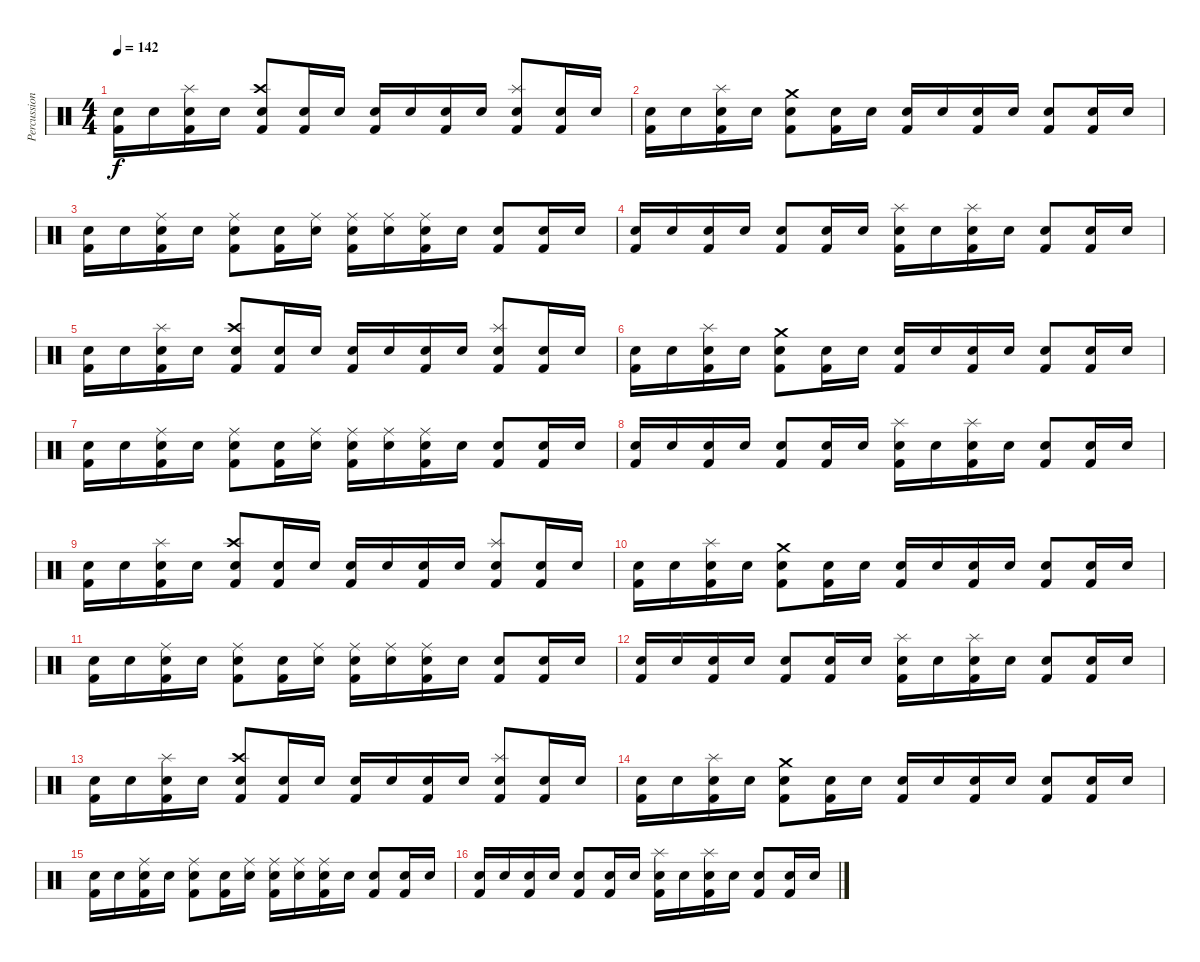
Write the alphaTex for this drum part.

\track ("Percussions" "Percussion") {instrument percussion}
\staff {score}
\articulation defaults
\ts (4 4)
\tempo 142
\clef neutral
\ks c
("Electric Snare (hit)" "Kick (hit) 2").16{dy f} "Electric Snare (hit)".16 ("Splash (hit)" "Electric Snare (hit)" "Kick (hit) 2").16 "Electric Snare (hit)".16 ("Crash high (hit)" "Snare (hit) 2" "Kick (hit) 2").8 ("Electric Snare (hit)" "Kick (hit) 2").16 "Electric Snare (hit)".16 ("Electric Snare (hit)" "Kick (hit) 2").16 "Electric Snare (hit)".16 ("Electric Snare (hit)" "Kick (hit) 2").16 "Electric Snare (hit)".16 ("Splash (hit)" "Snare (hit) 2" "Kick (hit) 2").8 ("Electric Snare (hit)" "Kick (hit) 2").16 "Electric Snare (hit)".16 |
("Electric Snare (hit)" "Kick (hit) 2").16 "Electric Snare (hit)".16 ("Splash (hit)" "Electric Snare (hit)" "Kick (hit) 2").16 "Electric Snare (hit)".16 ("Crash medium (hit)" "Snare (hit) 2" "Kick (hit) 2").8 ("Electric Snare (hit)" "Kick (hit) 2").16 "Electric Snare (hit)".16 ("Electric Snare (hit)" "Kick (hit) 2").16 "Electric Snare (hit)".16 ("Electric Snare (hit)" "Kick (hit) 2").16 "Electric Snare (hit)".16 ("Snare (hit) 2" "Kick (hit) 2").8 ("Electric Snare (hit)" "Kick (hit) 2").16 "Electric Snare (hit)".16 |
("Electric Snare (hit)" "Kick (hit) 2").16 "Electric Snare (hit)".16 ("Ride (middle)" "Electric Snare (hit)" "Kick (hit) 2").16 "Electric Snare (hit)".16 ("Ride (middle)" "Snare (hit) 2" "Kick (hit) 2").8 ("Electric Snare (hit)" "Kick (hit) 2").16 ("Ride (middle)" "Electric Snare (hit)").16 ("Ride (middle)" "Electric Snare (hit)" "Kick (hit) 2").16 ("Ride (middle)" "Electric Snare (hit)").16 ("Ride (middle)" "Electric Snare (hit)" "Kick (hit) 2").16 "Electric Snare (hit)".16 ("Snare (hit) 2" "Kick (hit) 2").8 ("Electric Snare (hit)" "Kick (hit) 2").16 "Electric Snare (hit)".16 |
("Electric Snare (hit)" "Kick (hit) 2").16 "Electric Snare (hit)".16 ("Electric Snare (hit)" "Kick (hit) 2").16 "Electric Snare (hit)".16 ("Snare (hit) 2" "Kick (hit) 2").8 ("Electric Snare (hit)" "Kick (hit) 2").16 "Electric Snare (hit)".16 ("Splash (hit)" "Electric Snare (hit)" "Kick (hit) 2").16 "Electric Snare (hit)".16 ("Splash (hit)" "Electric Snare (hit)" "Kick (hit) 2").16 "Electric Snare (hit)".16 ("Snare (hit) 2" "Kick (hit) 2").8 ("Electric Snare (hit)" "Kick (hit) 2").16 "Electric Snare (hit)".16 |
("Electric Snare (hit)" "Kick (hit) 2").16 "Electric Snare (hit)".16 ("Splash (hit)" "Electric Snare (hit)" "Kick (hit) 2").16 "Electric Snare (hit)".16 ("Crash high (hit)" "Snare (hit) 2" "Kick (hit) 2").8 ("Electric Snare (hit)" "Kick (hit) 2").16 "Electric Snare (hit)".16 ("Electric Snare (hit)" "Kick (hit) 2").16 "Electric Snare (hit)".16 ("Electric Snare (hit)" "Kick (hit) 2").16 "Electric Snare (hit)".16 ("Splash (hit)" "Snare (hit) 2" "Kick (hit) 2").8 ("Electric Snare (hit)" "Kick (hit) 2").16 "Electric Snare (hit)".16 |
("Electric Snare (hit)" "Kick (hit) 2").16 "Electric Snare (hit)".16 ("Splash (hit)" "Electric Snare (hit)" "Kick (hit) 2").16 "Electric Snare (hit)".16 ("Crash medium (hit)" "Snare (hit) 2" "Kick (hit) 2").8 ("Electric Snare (hit)" "Kick (hit) 2").16 "Electric Snare (hit)".16 ("Electric Snare (hit)" "Kick (hit) 2").16 "Electric Snare (hit)".16 ("Electric Snare (hit)" "Kick (hit) 2").16 "Electric Snare (hit)".16 ("Snare (hit) 2" "Kick (hit) 2").8 ("Electric Snare (hit)" "Kick (hit) 2").16 "Electric Snare (hit)".16 |
("Electric Snare (hit)" "Kick (hit) 2").16 "Electric Snare (hit)".16 ("Ride (middle)" "Electric Snare (hit)" "Kick (hit) 2").16 "Electric Snare (hit)".16 ("Ride (middle)" "Snare (hit) 2" "Kick (hit) 2").8 ("Electric Snare (hit)" "Kick (hit) 2").16 ("Ride (middle)" "Electric Snare (hit)").16 ("Ride (middle)" "Electric Snare (hit)" "Kick (hit) 2").16 ("Ride (middle)" "Electric Snare (hit)").16 ("Ride (middle)" "Electric Snare (hit)" "Kick (hit) 2").16 "Electric Snare (hit)".16 ("Snare (hit) 2" "Kick (hit) 2").8 ("Electric Snare (hit)" "Kick (hit) 2").16 "Electric Snare (hit)".16 |
("Electric Snare (hit)" "Kick (hit) 2").16 "Electric Snare (hit)".16 ("Electric Snare (hit)" "Kick (hit) 2").16 "Electric Snare (hit)".16 ("Snare (hit) 2" "Kick (hit) 2").8 ("Electric Snare (hit)" "Kick (hit) 2").16 "Electric Snare (hit)".16 ("Splash (hit)" "Electric Snare (hit)" "Kick (hit) 2").16 "Electric Snare (hit)".16 ("Splash (hit)" "Electric Snare (hit)" "Kick (hit) 2").16 "Electric Snare (hit)".16 ("Snare (hit) 2" "Kick (hit) 2").8 ("Electric Snare (hit)" "Kick (hit) 2").16 "Electric Snare (hit)".16 |
("Electric Snare (hit)" "Kick (hit) 2").16 "Electric Snare (hit)".16 ("Splash (hit)" "Electric Snare (hit)" "Kick (hit) 2").16 "Electric Snare (hit)".16 ("Crash high (hit)" "Snare (hit) 2" "Kick (hit) 2").8 ("Electric Snare (hit)" "Kick (hit) 2").16 "Electric Snare (hit)".16 ("Electric Snare (hit)" "Kick (hit) 2").16 "Electric Snare (hit)".16 ("Electric Snare (hit)" "Kick (hit) 2").16 "Electric Snare (hit)".16 ("Splash (hit)" "Snare (hit) 2" "Kick (hit) 2").8 ("Electric Snare (hit)" "Kick (hit) 2").16 "Electric Snare (hit)".16 |
("Electric Snare (hit)" "Kick (hit) 2").16 "Electric Snare (hit)".16 ("Splash (hit)" "Electric Snare (hit)" "Kick (hit) 2").16 "Electric Snare (hit)".16 ("Crash medium (hit)" "Snare (hit) 2" "Kick (hit) 2").8 ("Electric Snare (hit)" "Kick (hit) 2").16 "Electric Snare (hit)".16 ("Electric Snare (hit)" "Kick (hit) 2").16 "Electric Snare (hit)".16 ("Electric Snare (hit)" "Kick (hit) 2").16 "Electric Snare (hit)".16 ("Snare (hit) 2" "Kick (hit) 2").8 ("Electric Snare (hit)" "Kick (hit) 2").16 "Electric Snare (hit)".16 |
("Electric Snare (hit)" "Kick (hit) 2").16 "Electric Snare (hit)".16 ("Ride (middle)" "Electric Snare (hit)" "Kick (hit) 2").16 "Electric Snare (hit)".16 ("Ride (middle)" "Snare (hit) 2" "Kick (hit) 2").8 ("Electric Snare (hit)" "Kick (hit) 2").16 ("Ride (middle)" "Electric Snare (hit)").16 ("Ride (middle)" "Electric Snare (hit)" "Kick (hit) 2").16 ("Ride (middle)" "Electric Snare (hit)").16 ("Ride (middle)" "Electric Snare (hit)" "Kick (hit) 2").16 "Electric Snare (hit)".16 ("Snare (hit) 2" "Kick (hit) 2").8 ("Electric Snare (hit)" "Kick (hit) 2").16 "Electric Snare (hit)".16 |
("Electric Snare (hit)" "Kick (hit) 2").16 "Electric Snare (hit)".16 ("Electric Snare (hit)" "Kick (hit) 2").16 "Electric Snare (hit)".16 ("Snare (hit) 2" "Kick (hit) 2").8 ("Electric Snare (hit)" "Kick (hit) 2").16 "Electric Snare (hit)".16 ("Splash (hit)" "Electric Snare (hit)" "Kick (hit) 2").16 "Electric Snare (hit)".16 ("Splash (hit)" "Electric Snare (hit)" "Kick (hit) 2").16 "Electric Snare (hit)".16 ("Snare (hit) 2" "Kick (hit) 2").8 ("Electric Snare (hit)" "Kick (hit) 2").16 "Electric Snare (hit)".16 |
("Electric Snare (hit)" "Kick (hit) 2").16 "Electric Snare (hit)".16 ("Splash (hit)" "Electric Snare (hit)" "Kick (hit) 2").16 "Electric Snare (hit)".16 ("Crash high (hit)" "Snare (hit) 2" "Kick (hit) 2").8 ("Electric Snare (hit)" "Kick (hit) 2").16 "Electric Snare (hit)".16 ("Electric Snare (hit)" "Kick (hit) 2").16 "Electric Snare (hit)".16 ("Electric Snare (hit)" "Kick (hit) 2").16 "Electric Snare (hit)".16 ("Splash (hit)" "Snare (hit) 2" "Kick (hit) 2").8 ("Electric Snare (hit)" "Kick (hit) 2").16 "Electric Snare (hit)".16 |
("Electric Snare (hit)" "Kick (hit) 2").16 "Electric Snare (hit)".16 ("Splash (hit)" "Electric Snare (hit)" "Kick (hit) 2").16 "Electric Snare (hit)".16 ("Crash medium (hit)" "Snare (hit) 2" "Kick (hit) 2").8 ("Electric Snare (hit)" "Kick (hit) 2").16 "Electric Snare (hit)".16 ("Electric Snare (hit)" "Kick (hit) 2").16 "Electric Snare (hit)".16 ("Electric Snare (hit)" "Kick (hit) 2").16 "Electric Snare (hit)".16 ("Snare (hit) 2" "Kick (hit) 2").8 ("Electric Snare (hit)" "Kick (hit) 2").16 "Electric Snare (hit)".16 |
("Electric Snare (hit)" "Kick (hit) 2").16 "Electric Snare (hit)".16 ("Ride (middle)" "Electric Snare (hit)" "Kick (hit) 2").16 "Electric Snare (hit)".16 ("Ride (middle)" "Snare (hit) 2" "Kick (hit) 2").8 ("Electric Snare (hit)" "Kick (hit) 2").16 ("Ride (middle)" "Electric Snare (hit)").16 ("Ride (middle)" "Electric Snare (hit)" "Kick (hit) 2").16 ("Ride (middle)" "Electric Snare (hit)").16 ("Ride (middle)" "Electric Snare (hit)" "Kick (hit) 2").16 "Electric Snare (hit)".16 ("Snare (hit) 2" "Kick (hit) 2").8 ("Electric Snare (hit)" "Kick (hit) 2").16 "Electric Snare (hit)".16 |
("Electric Snare (hit)" "Kick (hit) 2").16 "Electric Snare (hit)".16 ("Electric Snare (hit)" "Kick (hit) 2").16 "Electric Snare (hit)".16 ("Snare (hit) 2" "Kick (hit) 2").8 ("Electric Snare (hit)" "Kick (hit) 2").16 "Electric Snare (hit)".16 ("Splash (hit)" "Electric Snare (hit)" "Kick (hit) 2").16 "Electric Snare (hit)".16 ("Splash (hit)" "Electric Snare (hit)" "Kick (hit) 2").16 "Electric Snare (hit)".16 ("Snare (hit) 2" "Kick (hit) 2").8 ("Electric Snare (hit)" "Kick (hit) 2").16 "Electric Snare (hit)".16
